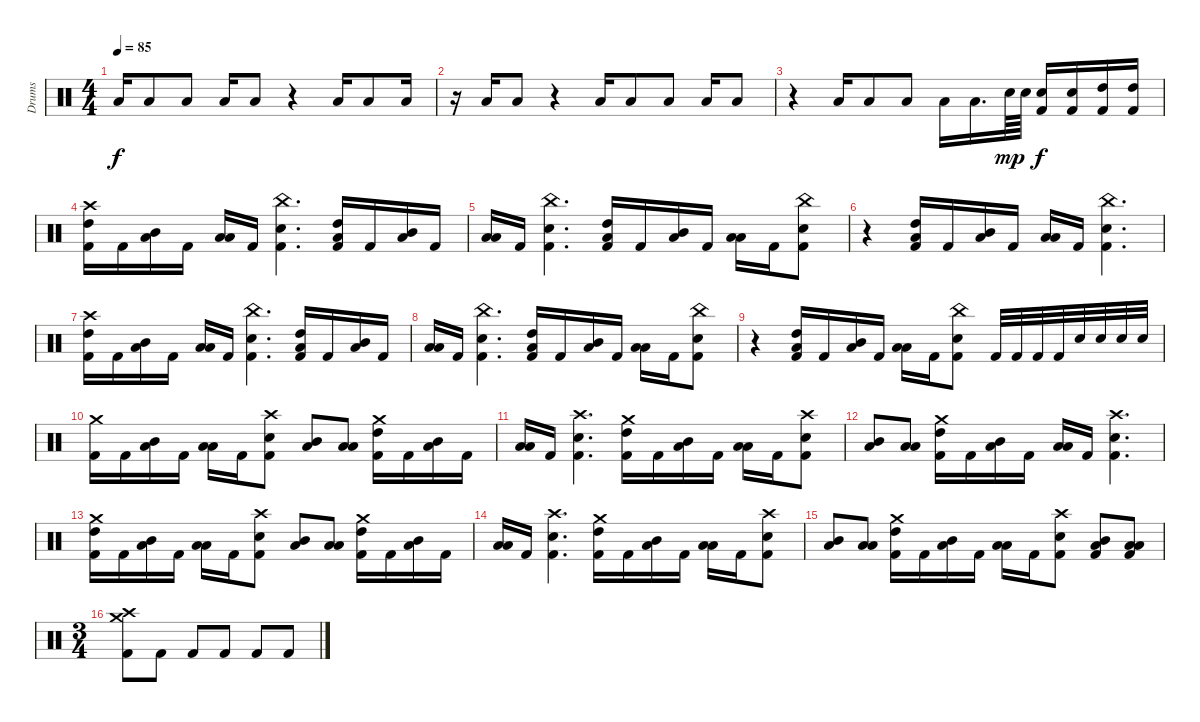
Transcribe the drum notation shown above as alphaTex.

\track ("Drums" "Drums") {instrument percussion}
\staff {score}
\articulation defaults
\ts (4 4)
\tempo 85
\clef neutral
\ks c "Low Tom (hit)".16{dy f} "Low Tom (hit)".8 "Low Tom (hit)".8 "Low Tom (hit)".16 "Low Tom (hit)".8
r.4 "Low Tom (hit)".16 "Low Tom (hit)".8 "Low Tom (hit)".16 |
r.16 "Low Tom (hit)".16 "Low Tom (hit)".8 r.4 "Low Tom (hit)".16 "Low Tom (hit)".8 "Low Tom (hit)".8 "Low Tom (hit)".16 "Low Tom (hit)".8 |
r.4 "Low Tom (hit)".16 "Low Tom (hit)".8 "Low Tom (hit)".8 "Low Tom (hit)".16 "Low Tom (hit)".16{d} "Snare (hit) 2".64{dy mp} "Snare (hit) 2".64 ("Snare (hit) 2" "Kick (hit) 2").16{dy f} ("Snare (hit) 2" "Kick (hit) 2").16 ("High Tom (hit)" "Kick (hit) 2").16 ("High Tom (hit)" "Kick (hit) 2").16 |
("Crash high (hit)" "High Tom (hit)" "Kick (hit) 2").16 "Kick (hit) 2".16 ("Mid Tom (hit)" "Low Tom (hit)").16 "Kick (hit) 2".16 ("Low Tom (hit)" "Low Tom (hit)").16 "Kick (hit) 2".16 ("China (hit)" "Snare (hit) 2" "Kick (hit) 2").4{d} ("High Tom (hit)" "Low Tom (hit)" "Kick (hit) 2").16 "Kick (hit) 2".16 ("Mid Tom (hit)" "Low Tom (hit)").16 "Kick (hit) 2".16 |
("Low Tom (hit)" "Low Tom (hit)").16 "Kick (hit) 2".16 ("China (hit)" "Snare (hit) 2" "Kick (hit) 2").4{d} ("High Tom (hit)" "Low Tom (hit)" "Kick (hit) 2").16 "Kick (hit) 2".16 ("Mid Tom (hit)" "Low Tom (hit)").16 "Kick (hit) 2".16 ("Low Tom (hit)" "Low Tom (hit)").16 "Kick (hit) 2".16 ("China (hit)" "Snare (hit) 2" "Kick (hit) 2").8 |
r.4 ("High Tom (hit)" "Low Tom (hit)" "Kick (hit) 2").16 "Kick (hit) 2".16 ("Mid Tom (hit)" "Low Tom (hit)").16 "Kick (hit) 2".16 ("Low Tom (hit)" "Low Tom (hit)").16 "Kick (hit) 2".16 ("China (hit)" "Snare (hit) 2" "Kick (hit) 2").4{d} |
("Crash high (hit)" "High Tom (hit)" "Kick (hit) 2").16 "Kick (hit) 2".16 ("Mid Tom (hit)" "Low Tom (hit)").16 "Kick (hit) 2".16 ("Low Tom (hit)" "Low Tom (hit)").16 "Kick (hit) 2".16 ("China (hit)" "Snare (hit) 2" "Kick (hit) 2").4{d} ("High Tom (hit)" "Low Tom (hit)" "Kick (hit) 2").16 "Kick (hit) 2".16 ("Mid Tom (hit)" "Low Tom (hit)").16 "Kick (hit) 2".16 |
("Low Tom (hit)" "Low Tom (hit)").16 "Kick (hit) 2".16 ("China (hit)" "Snare (hit) 2" "Kick (hit) 2").4{d} ("High Tom (hit)" "Low Tom (hit)" "Kick (hit) 2").16 "Kick (hit) 2".16 ("Mid Tom (hit)" "Low Tom (hit)").16 "Kick (hit) 2".16 ("Low Tom (hit)" "Low Tom (hit)").16 "Kick (hit) 2".16 ("China (hit)" "Snare (hit) 2" "Kick (hit) 2").8 |
r.4 ("High Tom (hit)" "Low Tom (hit)" "Kick (hit) 2").16 "Kick (hit) 2".16 ("Mid Tom (hit)" "Low Tom (hit)").16 "Kick (hit) 2".16 ("Low Tom (hit)" "Low Tom (hit)").16 "Kick (hit) 2".16 ("China (hit)" "Snare (hit) 2" "Kick (hit) 2").8 "Kick (hit) 2".32 "Kick (hit) 2".32 "Kick (hit) 2".32 "Kick (hit) 2".32 "Snare (hit) 2".32 "Snare (hit) 2".32 "Snare (hit) 2".32 "Snare (hit) 2".32 |
("Crash medium (hit)" "Kick (hit) 2").16 "Kick (hit) 2".16 ("Mid Tom (hit)" "Low Tom (hit)").16 "Kick (hit) 2".16 ("Low Tom (hit)" "Low Tom (hit)").16 "Kick (hit) 2".16 ("Crash high (hit)" "Snare (hit) 2" "Kick (hit) 2").8 ("Mid Tom (hit)" "Low Tom (hit)").8 ("Low Tom (hit)" "Low Tom (hit)").8 ("Crash medium (hit)" "High Tom (hit)" "Kick (hit) 2").16 "Kick (hit) 2".16 ("Mid Tom (hit)" "Low Tom (hit)").16 "Kick (hit) 2".16 |
("Low Tom (hit)" "Low Tom (hit)").16 "Kick (hit) 2".16 ("Crash high (hit)" "Snare (hit) 2" "Kick (hit) 2").4{d} ("Crash medium (hit)" "High Tom (hit)" "Kick (hit) 2").16 "Kick (hit) 2".16 ("Mid Tom (hit)" "Low Tom (hit)").16 "Kick (hit) 2".16 ("Low Tom (hit)" "Low Tom (hit)").16 "Kick (hit) 2".16 ("Crash high (hit)" "Snare (hit) 2" "Kick (hit) 2").8 |
("Mid Tom (hit)" "Low Tom (hit)").8 ("Low Tom (hit)" "Low Tom (hit)").8 ("Crash medium (hit)" "High Tom (hit)" "Kick (hit) 2").16 "Kick (hit) 2".16 ("Mid Tom (hit)" "Low Tom (hit)").16 "Kick (hit) 2".16 ("Low Tom (hit)" "Low Tom (hit)").16 "Kick (hit) 2".16 ("Crash high (hit)" "Snare (hit) 2" "Kick (hit) 2").4{d} |
("Crash medium (hit)" "High Tom (hit)" "Kick (hit) 2").16 "Kick (hit) 2".16 ("Mid Tom (hit)" "Low Tom (hit)").16 "Kick (hit) 2".16 ("Low Tom (hit)" "Low Tom (hit)").16 "Kick (hit) 2".16 ("Crash high (hit)" "Snare (hit) 2" "Kick (hit) 2").8 ("Mid Tom (hit)" "Low Tom (hit)").8 ("Low Tom (hit)" "Low Tom (hit)").8 ("Crash medium (hit)" "High Tom (hit)" "Kick (hit) 2").16 "Kick (hit) 2".16 ("Mid Tom (hit)" "Low Tom (hit)").16 "Kick (hit) 2".16 |
("Low Tom (hit)" "Low Tom (hit)").16 "Kick (hit) 2".16 ("Crash high (hit)" "Snare (hit) 2" "Kick (hit) 2").4{d} ("Crash medium (hit)" "High Tom (hit)" "Kick (hit) 2").16 "Kick (hit) 2".16 ("Mid Tom (hit)" "Low Tom (hit)").16 "Kick (hit) 2".16 ("Low Tom (hit)" "Low Tom (hit)").16 "Kick (hit) 2".16 ("Crash high (hit)" "Snare (hit) 2" "Kick (hit) 2").8 |
("Mid Tom (hit)" "Low Tom (hit)").8 ("Low Tom (hit)" "Low Tom (hit)").8 ("Crash medium (hit)" "High Tom (hit)" "Kick (hit) 2").16 "Kick (hit) 2".16 ("Mid Tom (hit)" "Low Tom (hit)").16 "Kick (hit) 2".16 ("Low Tom (hit)" "Low Tom (hit)").16 "Kick (hit) 2".16 ("Crash high (hit)" "Snare (hit) 2" "Kick (hit) 2").8 ("Mid Tom (hit)" "Low Tom (hit)" "Kick (hit) 2").8 ("Low Tom (hit)" "Low Tom (hit)" "Kick (hit) 2").8 |
\ts (3 4)
("Crash high (hit)" "Crash medium (hit)" "Kick (hit) 2").8 "Kick (hit) 2".8 "Kick (hit) 2".8 "Kick (hit) 2".8 "Kick (hit) 2".8 "Kick (hit) 2".8
